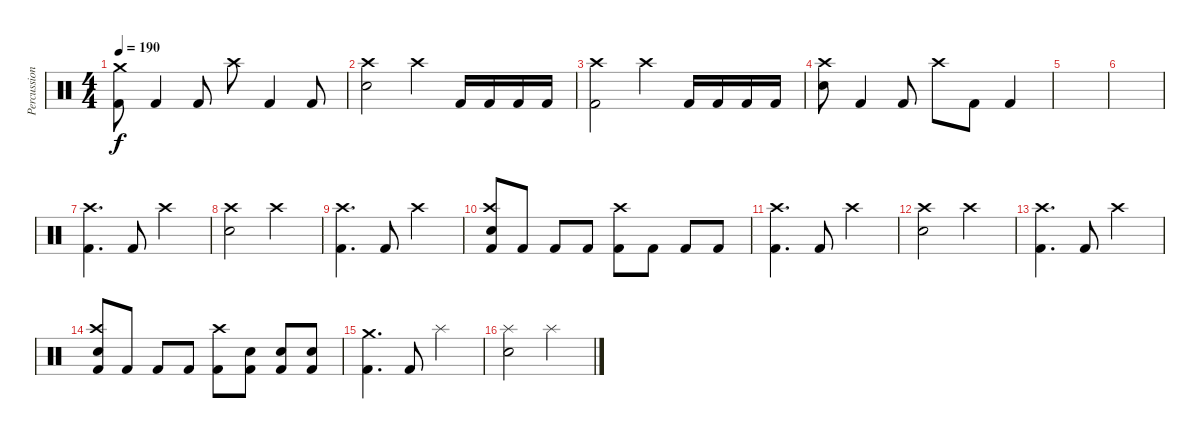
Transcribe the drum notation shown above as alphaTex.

\track ("Percussions" "Percussion") {instrument percussion}
\staff {score}
\articulation defaults
\ts (4 4)
\tempo 190
\clef neutral
\ks c
("Crash medium (hit)" "Kick (hit) 2").8{dy f} "Kick (hit) 2".4 "Kick (hit) 2".8 "Crash high (hit)".8 "Kick (hit) 2".4 "Kick (hit) 2".8 |
("Crash high (hit)" "Electric Snare (hit)").2 "Crash high (hit)".4 "Kick (hit) 2".16 "Kick (hit) 2".16 "Kick (hit) 2".16 "Kick (hit) 2".16 |
("Crash high (hit)" "Kick (hit) 2").2 "Crash high (hit)".4 "Kick (hit) 2".16 "Kick (hit) 2".16 "Kick (hit) 2".16 "Kick (hit) 2".16 |
("Crash high (hit)" "Electric Snare (hit)").8 "Kick (hit) 2".4 "Kick (hit) 2".8 "Crash high (hit)".8 "Kick (hit) 2".8 "Kick (hit) 2".4 |
|
|
("Crash high (hit)" "Kick (hit) 2").4{d} "Kick (hit) 2".8 "Crash high (hit)".2 |
("Crash high (hit)" "Electric Snare (hit)").2 "Crash high (hit)".2 |
("Crash high (hit)" "Kick (hit) 2").4{d} "Kick (hit) 2".8 "Crash high (hit)".2 |
("Crash high (hit)" "Electric Snare (hit)" "Kick (hit) 2").8 "Kick (hit) 2".8 "Kick (hit) 2".8 "Kick (hit) 2".8 ("Crash high (hit)" "Kick (hit) 2").8 "Kick (hit) 2".8 "Kick (hit) 2".8 "Kick (hit) 2".8 |
("Crash high (hit)" "Kick (hit) 2").4{d} "Kick (hit) 2".8 "Crash high (hit)".2 |
("Crash high (hit)" "Electric Snare (hit)").2 "Crash high (hit)".2 |
("Crash high (hit)" "Kick (hit) 2").4{d} "Kick (hit) 2".8 "Crash high (hit)".2 |
("Crash high (hit)" "Electric Snare (hit)" "Kick (hit) 2").8 "Kick (hit) 2".8 "Kick (hit) 2".8 "Kick (hit) 2".8 ("Crash high (hit)" "Kick (hit) 2").8 ("Electric Snare (hit)" "Kick (hit) 2").8 ("Electric Snare (hit)" "Kick (hit) 2").8 ("Electric Snare (hit)" "Kick (hit) 2").8 |
("Crash medium (hit)" "Kick (hit) 2").4{d} "Kick (hit) 2".8 "Splash (hit)".2 |
("Splash (hit)" "Electric Snare (hit)").2 "Splash (hit)".2
